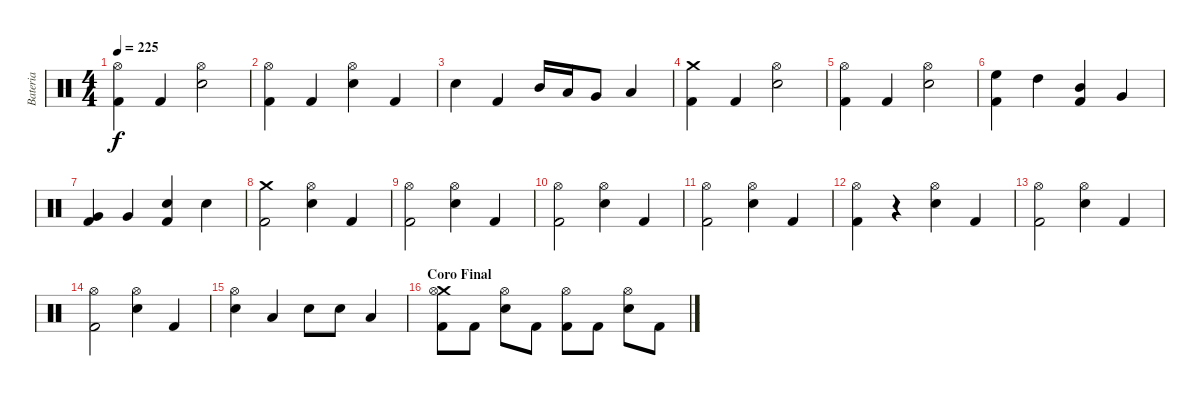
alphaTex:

\track ("Bateria" "Bateria") {instrument percussion}
\staff {score}
\articulation defaults
\ts (4 4)
\tempo 225
\clef neutral
\ks c
("Kick (hit) 2" "Hi-Hat (open)").4{dy f} "Kick (hit) 2".4 ("Snare (hit) 2" "Hi-Hat (open)").2 |
("Kick (hit) 2" "Hi-Hat (open)").4 "Kick (hit) 2".4 ("Snare (hit) 2" "Hi-Hat (open)").4 "Kick (hit) 2".4 |
"Snare (hit) 2".4 "Kick (hit) 2".4 "Mid Tom (hit)".16 "Low Tom (hit)".16 "Very Low Tom (hit)".8 "Low Floor Tom (hit)".4 |
("Kick (hit) 2" "Crash medium (hit)").4 "Kick (hit) 2".4 ("Snare (hit) 2" "Hi-Hat (open)").2 |
("Kick (hit) 2" "Hi-Hat (open)").4 "Kick (hit) 2".4 ("Snare (hit) 2" "Hi-Hat (open)").2 |
("Kick (hit) 2" "High Floor Tom (hit)").4 "High Tom (hit)".4 ("Mid Tom (hit)" "Kick (hit) 2").4 "Very Low Tom (hit)".4 |
("Kick (hit) 2" "Very Low Tom (hit)").4 "Very Low Tom (hit)".4 ("Kick (hit) 2" "Snare (hit) 2").4 "Snare (hit) 2".4 |
("Kick (hit) 2" "Crash medium (hit)").2 ("Snare (hit) 2" "Hi-Hat (open)").4 "Kick (hit) 2".4 |
("Kick (hit) 2" "Hi-Hat (open)").2 ("Snare (hit) 2" "Hi-Hat (open)").4 "Kick (hit) 2".4 |
("Kick (hit) 2" "Hi-Hat (open)").2 ("Snare (hit) 2" "Hi-Hat (open)").4 "Kick (hit) 2".4 |
("Kick (hit) 2" "Hi-Hat (open)").2 ("Snare (hit) 2" "Hi-Hat (open)").4 "Kick (hit) 2".4 |
("Kick (hit) 2" "Hi-Hat (open)").4 r.4 ("Snare (hit) 2" "Hi-Hat (open)").4 "Kick (hit) 2".4 |
("Kick (hit) 2" "Hi-Hat (open)").2 ("Snare (hit) 2" "Hi-Hat (open)").4 "Kick (hit) 2".4 |
("Kick (hit) 2" "Hi-Hat (open)").2 ("Snare (hit) 2" "Hi-Hat (open)").4 "Kick (hit) 2".4 |
("Hi-Hat (open)" "Snare (hit) 2").4 "Low Tom (hit)".4 "Snare (hit) 2".8 "Snare (hit) 2".8 "Low Tom (hit)".4 |
\section ("" "Coro Final")
("Crash medium (hit)" "Hi-Hat (open)" "Kick (hit) 2").8 "Kick (hit) 2".8 ("Hi-Hat (open)" "Snare (hit) 2").8 "Kick (hit) 2".8 ("Hi-Hat (open)" "Kick (hit) 2").8 "Kick (hit) 2".8 ("Hi-Hat (open)" "Snare (hit) 2").8 "Kick (hit) 2".8
